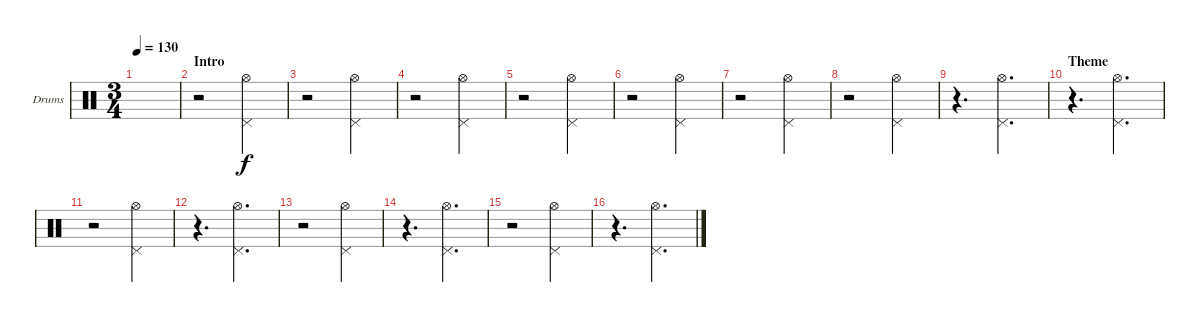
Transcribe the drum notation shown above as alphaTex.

\bracketExtendMode groupsimilarinstruments
\firstSystemTrackNameOrientation horizontal
\otherSystemsTrackNameOrientation horizontal
\track ("HH" "Drums") {instrument percussion}
\staff {score}
\articulation defaults
\ts (3 4)
\tempo 130
\clef neutral
\ks c
|
\section ("" "Intro")
r.2 ("Pedal Hi-Hat (hit)" "Hi-Hat (open)").4 |
r.2 ("Pedal Hi-Hat (hit)" "Hi-Hat (open)").4 |
r.2 ("Pedal Hi-Hat (hit)" "Hi-Hat (open)").4 |
r.2 ("Pedal Hi-Hat (hit)" "Hi-Hat (open)").4 |
r.2 ("Pedal Hi-Hat (hit)" "Hi-Hat (open)").4 |
r.2 ("Pedal Hi-Hat (hit)" "Hi-Hat (open)").4 |
r.2 ("Pedal Hi-Hat (hit)" "Hi-Hat (open)").4 |
r.4{d} ("Pedal Hi-Hat (hit)" "Hi-Hat (open)").4{d} |
\section ("" "Theme")
r.4{d} ("Pedal Hi-Hat (hit)" "Hi-Hat (open)").4{d} |
r.2 ("Pedal Hi-Hat (hit)" "Hi-Hat (open)").4 |
r.4{d} ("Pedal Hi-Hat (hit)" "Hi-Hat (open)").4{d} |
r.2 ("Pedal Hi-Hat (hit)" "Hi-Hat (open)").4 |
r.4{d} ("Pedal Hi-Hat (hit)" "Hi-Hat (open)").4{d} |
r.2 ("Pedal Hi-Hat (hit)" "Hi-Hat (open)").4 |
r.4{d} ("Pedal Hi-Hat (hit)" "Hi-Hat (open)").4{d}
